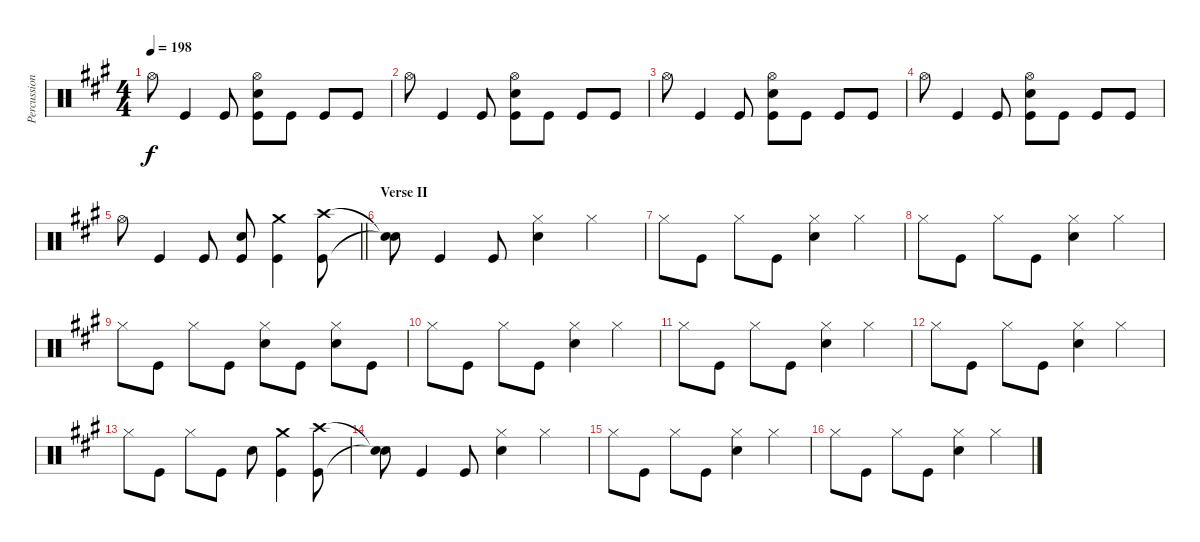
\track ("Percussion" "Percussion") {instrument percussion}
\staff {score}
\articulation defaults
\ts (4 4)
\tempo 198
\clef neutral
\ks a "Hi-Hat (open)".8{dy f} "Kick (hit)".4 "Kick (hit)".8
("Hi-Hat (open)" "Electric Snare (hit)" "Kick (hit)").8 "Kick (hit)".8 "Kick (hit)".8 "Kick (hit)".8 |
"Hi-Hat (open)".8 "Kick (hit)".4 "Kick (hit)".8 ("Hi-Hat (open)" "Electric Snare (hit)" "Kick (hit)").8 "Kick (hit)".8 "Kick (hit)".8 "Kick (hit)".8 |
"Hi-Hat (open)".8 "Kick (hit)".4 "Kick (hit)".8 ("Hi-Hat (open)" "Electric Snare (hit)" "Kick (hit)").8 "Kick (hit)".8 "Kick (hit)".8 "Kick (hit)".8 |
"Hi-Hat (open)".8 "Kick (hit)".4 "Kick (hit)".8 ("Hi-Hat (open)" "Electric Snare (hit)" "Kick (hit)").8 "Kick (hit)".8 "Kick (hit)".8 "Kick (hit)".8 |
\barLineRight lightlight "Hi-Hat (open)".8 "Kick (hit)".4 "Kick (hit)".8
("Electric Snare (hit)" "Kick (hit)").8 ("Crash medium (hit)" "Kick (hit)").4 ("Crash high (hit)" "Kick (hit)").8 |
\section ("" "Verse II")
("Snare (hit)"{t} "Snare (hit)"{t}).8 "Kick (hit)".4 "Kick (hit)".8 ("Hi-Hat (closed)" "Electric Snare (hit)").4 "Hi-Hat (closed)".4 |
"Hi-Hat (closed)".8 "Kick (hit)".8 "Hi-Hat (closed)".8 "Kick (hit)".8 ("Hi-Hat (closed)" "Electric Snare (hit)").4 "Hi-Hat (closed)".4 |
"Hi-Hat (closed)".8 "Kick (hit)".8 "Hi-Hat (closed)".8 "Kick (hit)".8 ("Hi-Hat (closed)" "Electric Snare (hit)").4 "Hi-Hat (closed)".4 |
"Hi-Hat (closed)".8 "Kick (hit)".8 "Hi-Hat (closed)".8 "Kick (hit)".8 ("Hi-Hat (closed)" "Electric Snare (hit)").8 "Kick (hit)".8 ("Hi-Hat (closed)" "Electric Snare (hit)").8 "Kick (hit)".8 |
"Hi-Hat (closed)".8 "Kick (hit)".8 "Hi-Hat (closed)".8 "Kick (hit)".8 ("Hi-Hat (closed)" "Electric Snare (hit)").4 "Hi-Hat (closed)".4 |
"Hi-Hat (closed)".8 "Kick (hit)".8 "Hi-Hat (closed)".8 "Kick (hit)".8 ("Hi-Hat (closed)" "Electric Snare (hit)").4 "Hi-Hat (closed)".4 |
"Hi-Hat (closed)".8 "Kick (hit)".8 "Hi-Hat (closed)".8 "Kick (hit)".8 ("Hi-Hat (closed)" "Electric Snare (hit)").4 "Hi-Hat (closed)".4 |
"Hi-Hat (closed)".8 "Kick (hit)".8 "Hi-Hat (closed)".8 "Kick (hit)".8 "Electric Snare (hit)".8 ("Crash medium (hit)" "Kick (hit)").4 ("Crash high (hit)" "Kick (hit)").8 |
("Snare (hit)"{t} "Snare (hit)"{t}).8 "Kick (hit)".4 "Kick (hit)".8 ("Hi-Hat (closed)" "Electric Snare (hit)").4 "Hi-Hat (closed)".4 |
"Hi-Hat (closed)".8 "Kick (hit)".8 "Hi-Hat (closed)".8 "Kick (hit)".8 ("Hi-Hat (closed)" "Electric Snare (hit)").4 "Hi-Hat (closed)".4 |
"Hi-Hat (closed)".8 "Kick (hit)".8 "Hi-Hat (closed)".8 "Kick (hit)".8 ("Hi-Hat (closed)" "Electric Snare (hit)").4 "Hi-Hat (closed)".4
